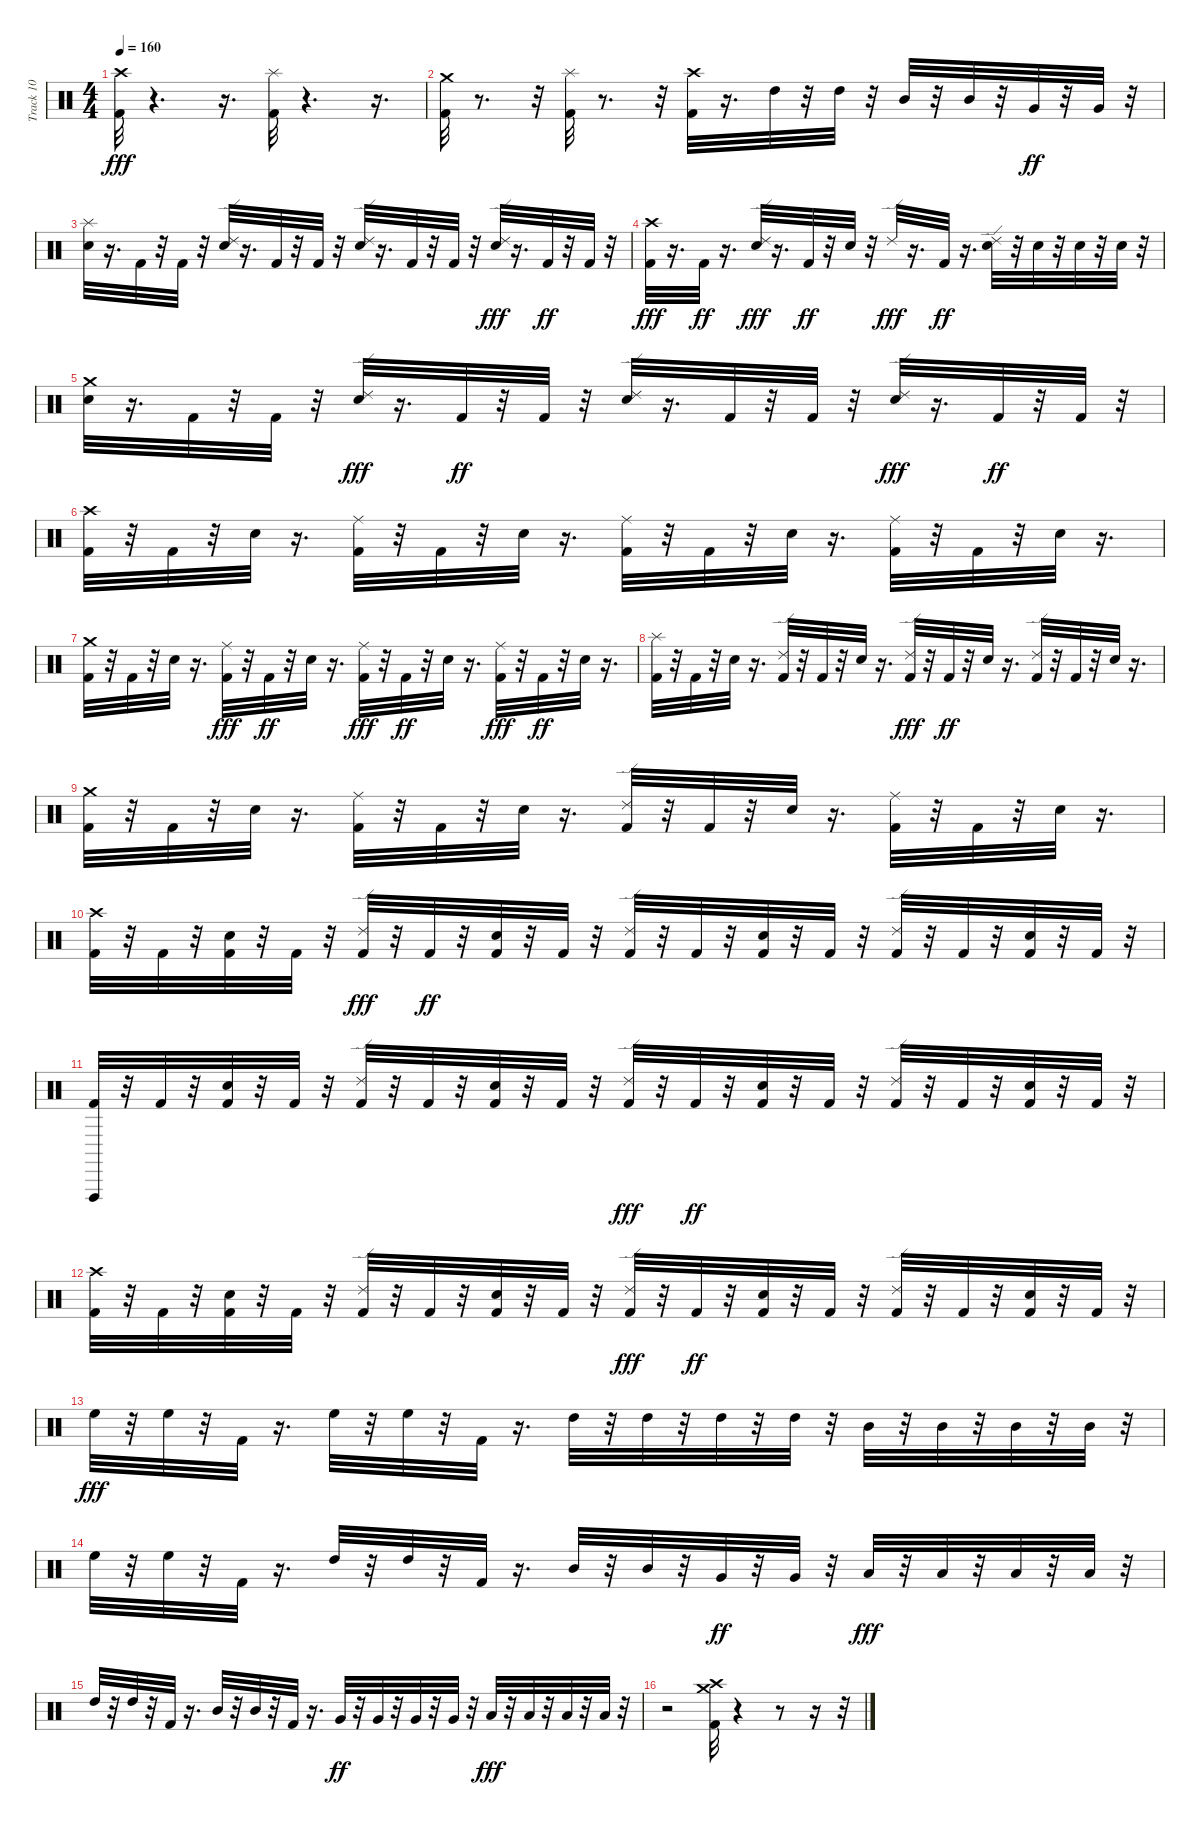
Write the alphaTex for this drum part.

\track ("Track 10" "Track 10") {instrument percussion}
\staff {score}
\articulation defaults
\ts (4 4)
\tempo 160
\clef neutral
\ks c
("Kick (hit) 2" "Crash high (hit)").32{dy fff} r.4{d} r.16{d} ("Splash (hit)" "Kick (hit) 2").32 r.4{d} r.16{d} |
("Kick (hit) 2" "Crash medium (hit)").32 r.8{d} r.32 ("Splash (hit)" "Kick (hit) 2").32 r.8{d} r.32 ("Kick (hit) 2" "Crash high (hit)").32 r.16{d} "High Tom (hit)".32 r.32 "High Tom (hit)".32 r.32 "Mid Tom (hit)".32 r.32 "Mid Tom (hit)".32 r.32 "Very Low Tom (hit)".32{dy ff} r.32 "Very Low Tom (hit)".32 r.32 |
("Electric Snare (hit)" "Splash (hit)").32 r.16{d} "Kick (hit) 2".32 r.32 "Kick (hit) 2".32 r.32 ("Ride (edge) 2" "Electric Snare (hit)").32 r.16{d} "Kick (hit) 2".32 r.32 "Kick (hit) 2".32 r.32 ("Ride (edge) 2" "Electric Snare (hit)").32 r.16{d} "Kick (hit) 2".32 r.32 "Kick (hit) 2".32 r.32 ("Electric Snare (hit)" "Ride (edge) 2").32{dy fff} r.16{d} "Kick (hit) 2".32{dy ff} r.32 "Kick (hit) 2".32 r.32 |
("Kick (hit) 2" "Crash high (hit)").32{dy fff} r.16{d} "Kick (hit) 2".32{dy ff} r.16{d} ("Electric Snare (hit)" "Ride (edge) 2").32{dy fff} r.16{d} "Kick (hit) 2".32{dy ff} r.32 "Electric Snare (hit)".32 r.32 "Ride (edge) 2".32{dy fff} r.16{d} "Kick (hit) 2".32{dy ff} r.16{d} ("Ride (edge) 2" "Electric Snare (hit)").32 r.32 "Electric Snare (hit)".32 r.32 "Electric Snare (hit)".32 r.32 "Electric Snare (hit)".32 r.32 |
("Crash medium (hit)" "Electric Snare (hit)").32 r.16{d} "Kick (hit) 2".32 r.32 "Kick (hit) 2".32 r.32 ("Electric Snare (hit)" "Ride (edge) 2").32{dy fff} r.16{d} "Kick (hit) 2".32{dy ff} r.32 "Kick (hit) 2".32 r.32 ("Ride (edge) 2" "Electric Snare (hit)").32 r.16{d} "Kick (hit) 2".32 r.32 "Kick (hit) 2".32 r.32 ("Electric Snare (hit)" "Ride (edge) 2").32{dy fff} r.16{d} "Kick (hit) 2".32{dy ff} r.32 "Kick (hit) 2".32 r.32 |
("Crash high (hit)" "Kick (hit) 2").32 r.32 "Kick (hit) 2".32 r.32 "Electric Snare (hit)".32 r.16{d} ("Ride (middle)" "Kick (hit) 2").32 r.32 "Kick (hit) 2".32 r.32 "Electric Snare (hit)".32 r.16{d} ("Ride (middle)" "Kick (hit) 2").32 r.32 "Kick (hit) 2".32 r.32 "Electric Snare (hit)".32 r.16{d} ("Ride (middle)" "Kick (hit) 2").32 r.32 "Kick (hit) 2".32 r.32 "Electric Snare (hit)".32 r.16{d} |
("Kick (hit) 2" "Crash medium (hit)").32 r.32 "Kick (hit) 2".32 r.32 "Electric Snare (hit)".32 r.16{d} ("Kick (hit) 2" "Ride (middle)").32{dy fff} r.32 "Kick (hit) 2".32{dy ff} r.32 "Electric Snare (hit)".32 r.16{d} ("Kick (hit) 2" "Ride (middle)").32{dy fff} r.32 "Kick (hit) 2".32{dy ff} r.32 "Electric Snare (hit)".32 r.16{d} ("Kick (hit) 2" "Ride (middle)").32{dy fff} r.32 "Kick (hit) 2".32{dy ff} r.32 "Electric Snare (hit)".32 r.16{d} |
("Kick (hit) 2" "Splash (hit)").32 r.32 "Kick (hit) 2".32 r.32 "Electric Snare (hit)".32 r.16{d} ("Ride (edge) 2" "Kick (hit) 2").32 r.32 "Kick (hit) 2".32 r.32 "Electric Snare (hit)".32 r.16{d} ("Kick (hit) 2" "Ride (edge) 2").32{dy fff} r.32 "Kick (hit) 2".32{dy ff} r.32 "Electric Snare (hit)".32 r.16{d} ("Ride (edge) 2" "Kick (hit) 2").32 r.32 "Kick (hit) 2".32 r.32 "Electric Snare (hit)".32 r.16{d} |
("Kick (hit) 2" "Crash medium (hit)").32 r.32 "Kick (hit) 2".32 r.32 "Electric Snare (hit)".32 r.16{d} ("Ride (middle)" "Kick (hit) 2").32 r.32 "Kick (hit) 2".32 r.32 "Electric Snare (hit)".32 r.16{d} ("Ride (edge) 2" "Kick (hit) 2").32 r.32 "Kick (hit) 2".32 r.32 "Electric Snare (hit)".32 r.16{d} ("Ride (middle)" "Kick (hit) 2").32 r.32 "Kick (hit) 2".32 r.32 "Electric Snare (hit)".32 r.16{d} |
("Crash high (hit)" "Kick (hit) 2").32 r.32 "Kick (hit) 2".32 r.32 ("Electric Snare (hit)" "Kick (hit) 2").32 r.32 "Kick (hit) 2".32 r.32 ("Kick (hit) 2" "Ride (edge) 2").32{dy fff} r.32 "Kick (hit) 2".32{dy ff} r.32 ("Electric Snare (hit)" "Kick (hit) 2").32 r.32 "Kick (hit) 2".32 r.32 ("Ride (edge) 2" "Kick (hit) 2").32 r.32 "Kick (hit) 2".32 r.32 ("Electric Snare (hit)" "Kick (hit) 2").32 r.32 "Kick (hit) 2".32 r.32 ("Ride (edge) 2" "Kick (hit) 2").32 r.32 "Kick (hit) 2".32 r.32 ("Kick (hit) 2" "Electric Snare (hit)").32 r.32 "Kick (hit) 2".32 r.32 |
("Vibraslap (hit)" "Kick (hit) 2").32 r.32 "Kick (hit) 2".32 r.32 ("Electric Snare (hit)" "Kick (hit) 2").32 r.32 "Kick (hit) 2".32 r.32 ("Ride (edge) 2" "Kick (hit) 2").32 r.32 "Kick (hit) 2".32 r.32 ("Kick (hit) 2" "Electric Snare (hit)").32 r.32 "Kick (hit) 2".32 r.32 ("Kick (hit) 2" "Ride (edge) 2").32{dy fff} r.32 "Kick (hit) 2".32{dy ff} r.32 ("Electric Snare (hit)" "Kick (hit) 2").32 r.32 "Kick (hit) 2".32 r.32 ("Ride (edge) 2" "Kick (hit) 2").32 r.32 "Kick (hit) 2".32 r.32 ("Kick (hit) 2" "Electric Snare (hit)").32 r.32 "Kick (hit) 2".32 r.32 |
("Crash high (hit)" "Kick (hit) 2").32 r.32 "Kick (hit) 2".32 r.32 ("Kick (hit) 2" "Electric Snare (hit)").32 r.32 "Kick (hit) 2".32 r.32 ("Ride (edge) 2" "Kick (hit) 2").32 r.32 "Kick (hit) 2".32 r.32 ("Kick (hit) 2" "Electric Snare (hit)").32 r.32 "Kick (hit) 2".32 r.32 ("Kick (hit) 2" "Ride (edge) 2").32{dy fff} r.32 "Kick (hit) 2".32{dy ff} r.32 ("Electric Snare (hit)" "Kick (hit) 2").32 r.32 "Kick (hit) 2".32 r.32 ("Ride (edge) 2" "Kick (hit) 2").32 r.32 "Kick (hit) 2".32 r.32 ("Kick (hit) 2" "Electric Snare (hit)").32 r.32 "Kick (hit) 2".32 r.32 |
"High Floor Tom (hit)".32{dy fff} r.32 "High Floor Tom (hit)".32 r.32 "Kick (hit) 2".32 r.16{d} "High Floor Tom (hit)".32 r.32 "High Floor Tom (hit)".32 r.32 "Kick (hit) 2".32 r.16{d} "High Tom (hit)".32 r.32 "High Tom (hit)".32 r.32 "High Tom (hit)".32 r.32 "High Tom (hit)".32 r.32 "Mid Tom (hit)".32 r.32 "Mid Tom (hit)".32 r.32 "Mid Tom (hit)".32 r.32 "Mid Tom (hit)".32 r.32 |
"High Floor Tom (hit)".32 r.32 "High Floor Tom (hit)".32 r.32 "Kick (hit) 2".32 r.16{d} "High Tom (hit)".32 r.32 "High Tom (hit)".32 r.32 "Kick (hit) 2".32 r.16{d} "Mid Tom (hit)".32 r.32 "Mid Tom (hit)".32 r.32 "Very Low Tom (hit)".32{dy ff} r.32 "Very Low Tom (hit)".32 r.32 "Low Tom (hit)".32{dy fff} r.32 "Low Tom (hit)".32 r.32 "Low Tom (hit)".32 r.32 "Low Tom (hit)".32 r.32 |
"High Tom (hit)".32 r.32 "High Tom (hit)".32 r.32 "Kick (hit) 2".32 r.16{d} "Mid Tom (hit)".32 r.32 "Mid Tom (hit)".32 r.32 "Kick (hit) 2".32 r.16{d} "Very Low Tom (hit)".32{dy ff} r.32 "Very Low Tom (hit)".32 r.32 "Very Low Tom (hit)".32 r.32 "Very Low Tom (hit)".32 r.32 "Low Tom (hit)".32{dy fff} r.32 "Low Tom (hit)".32 r.32 "Low Tom (hit)".32 r.32 "Low Tom (hit)".32 r.32 |
r.2 ("Kick (hit) 2" "Crash high (hit)" "Crash medium (hit)").32 r.4 r.8 r.16 r.32
